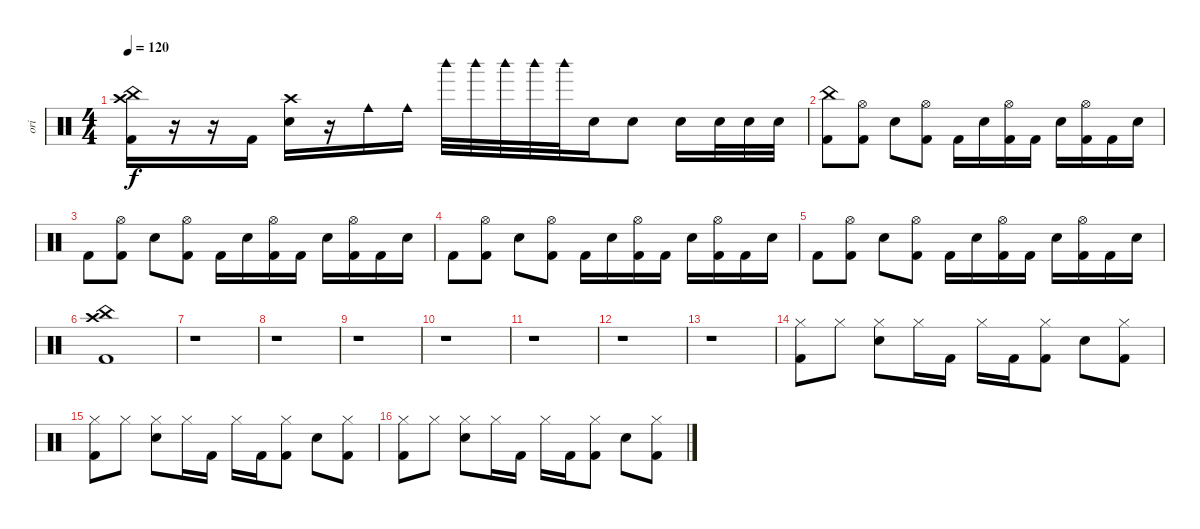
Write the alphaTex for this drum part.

\track ("ori" "ori") {instrument percussion}
\staff {score}
\articulation defaults
\ts (4 4)
\tempo 120
\clef neutral
\ks c
("Crash high (hit)" "China (hit)" "Kick (hit) 2").16{dy f} r.16 r.16 "Kick (hit) 2".16 ("Crash high (hit)" "Electric Snare (hit)").16 r.16 "Cowbell medium (hit)".16 "Cowbell medium (hit)".16 "Woodblock high (hit)".32 "Woodblock high (hit)".32 "Woodblock high (hit)".32 "Woodblock high (hit)".32 "Woodblock high (hit)".32 "Snare (hit) 2".16 "Snare (hit) 2".8 "Snare (hit) 2".16 "Electric Snare (hit)".32 "Electric Snare (hit)".32 "Electric Snare (hit)".32 |
("Kick (hit) 2" "China (hit)").8 ("Hi-Hat (open)" "Kick (hit) 2").8 "Electric Snare (hit)".8 ("Hi-Hat (open)" "Kick (hit) 2").8 "Kick (hit) 2".16 "Electric Snare (hit)".16 ("Hi-Hat (open)" "Kick (hit) 2").16 "Kick (hit) 2".16 "Electric Snare (hit)".16 ("Hi-Hat (open)" "Kick (hit) 2").16 "Kick (hit) 2".16 "Electric Snare (hit)".16 |
"Kick (hit) 2".8 ("Hi-Hat (open)" "Kick (hit) 2").8 "Electric Snare (hit)".8 ("Hi-Hat (open)" "Kick (hit) 2").8 "Kick (hit) 2".16 "Electric Snare (hit)".16 ("Hi-Hat (open)" "Kick (hit) 2").16 "Kick (hit) 2".16 "Electric Snare (hit)".16 ("Hi-Hat (open)" "Kick (hit) 2").16 "Kick (hit) 2".16 "Electric Snare (hit)".16 |
"Kick (hit) 2".8 ("Hi-Hat (open)" "Kick (hit) 2").8 "Electric Snare (hit)".8 ("Hi-Hat (open)" "Kick (hit) 2").8 "Kick (hit) 2".16 "Electric Snare (hit)".16 ("Hi-Hat (open)" "Kick (hit) 2").16 "Kick (hit) 2".16 "Electric Snare (hit)".16 ("Hi-Hat (open)" "Kick (hit) 2").16 "Kick (hit) 2".16 "Electric Snare (hit)".16 |
"Kick (hit) 2".8 ("Hi-Hat (open)" "Kick (hit) 2").8 "Electric Snare (hit)".8 ("Hi-Hat (open)" "Kick (hit) 2").8 "Kick (hit) 2".16 "Electric Snare (hit)".16 ("Hi-Hat (open)" "Kick (hit) 2").16 "Kick (hit) 2".16 "Electric Snare (hit)".16 ("Hi-Hat (open)" "Kick (hit) 2").16 "Kick (hit) 2".16 "Electric Snare (hit)".16 |
("Crash high (hit)" "China (hit)" "Kick (hit) 2").1 |
r.1 |
r.1 |
r.1 |
r.1 |
r.1 |
r.1 |
r.1 |
("Kick (hit) 2" "Hi-Hat (closed)").8 "Hi-Hat (closed)".8 ("Electric Snare (hit)" "Hi-Hat (closed)").8 "Hi-Hat (closed)".16 "Kick (hit) 2".16 "Hi-Hat (closed)".16 "Kick (hit) 2".16 ("Kick (hit) 2" "Hi-Hat (closed)").8 "Electric Snare (hit)".8 ("Kick (hit) 2" "Hi-Hat (closed)").8 |
("Kick (hit) 2" "Hi-Hat (closed)").8 "Hi-Hat (closed)".8 ("Electric Snare (hit)" "Hi-Hat (closed)").8 "Hi-Hat (closed)".16 "Kick (hit) 2".16 "Hi-Hat (closed)".16 "Kick (hit) 2".16 ("Kick (hit) 2" "Hi-Hat (closed)").8 "Electric Snare (hit)".8 ("Kick (hit) 2" "Hi-Hat (closed)").8 |
("Kick (hit) 2" "Hi-Hat (closed)").8 "Hi-Hat (closed)".8 ("Electric Snare (hit)" "Hi-Hat (closed)").8 "Hi-Hat (closed)".16 "Kick (hit) 2".16 "Hi-Hat (closed)".16 "Kick (hit) 2".16 ("Kick (hit) 2" "Hi-Hat (closed)").8 "Electric Snare (hit)".8 ("Kick (hit) 2" "Hi-Hat (closed)").8
